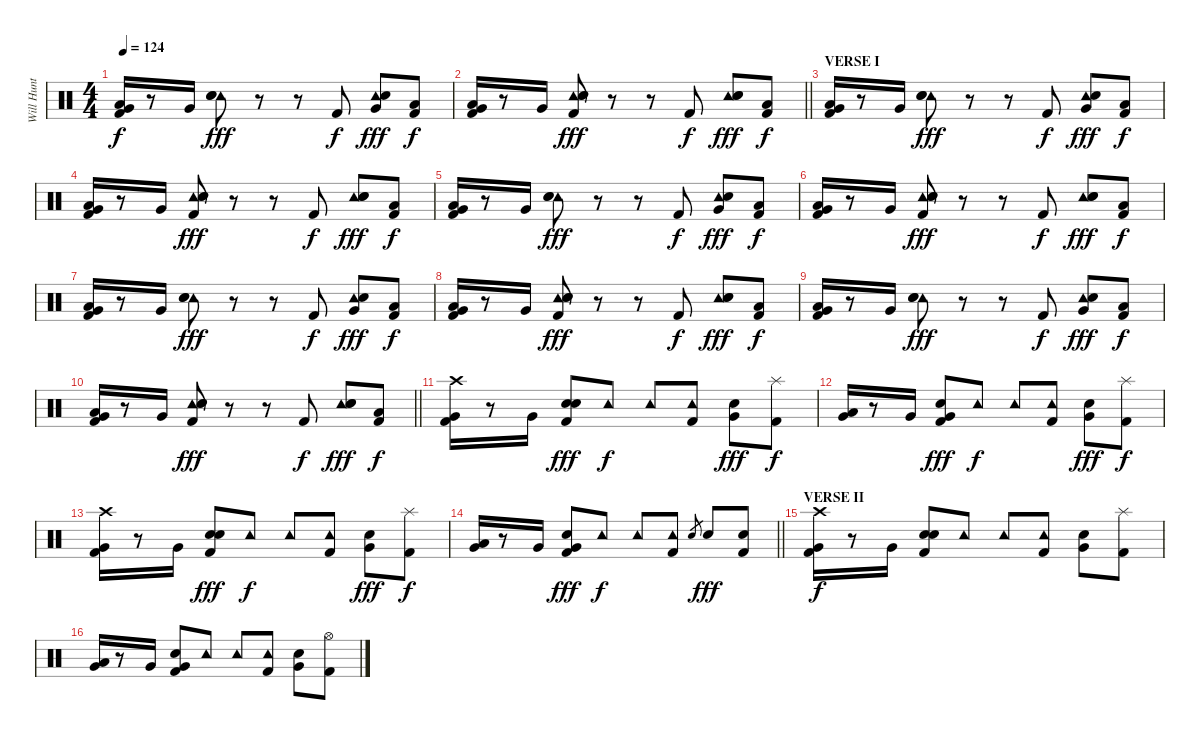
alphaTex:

\track ("Will Hunt - drums" "Will Hunt ") {instrument percussion}
\staff {score}
\articulation defaults
\ts (4 4)
\tempo 124
\clef neutral
\ks c
("Low Floor Tom (hit)" "Very Low Tom (hit)" "Kick (hit) 2").16{dy f} r.8 "Very Low Tom (hit)".16 ("Tambourine (hit)" "Electric Snare (hit)" "Snare (hit) 2").8{dy fff} r.8 r.8 "Kick (hit) 2".8{dy f} ("Tambourine (hit)" "Very Low Tom (hit)" "Snare (hit) 2").8{dy fff} ("Low Floor Tom (hit)" "Kick (hit) 2").8{dy f} |
\barLineRight lightlight
("Low Floor Tom (hit)" "Very Low Tom (hit)" "Kick (hit) 2").16 r.8 "Very Low Tom (hit)".16 ("Tambourine (hit)" "Electric Snare (hit)" "Snare (hit) 2" "Kick (hit) 2").8{dy fff} r.8 r.8 "Kick (hit) 2".8{dy f} ("Tambourine (hit)" "Electric Snare (hit)" "Snare (hit) 2").8{dy fff} ("Low Floor Tom (hit)" "Kick (hit) 2").8{dy f} |
\section ("" "VERSE I")
("Low Floor Tom (hit)" "Very Low Tom (hit)" "Kick (hit) 2").16 r.8 "Very Low Tom (hit)".16 ("Tambourine (hit)" "Electric Snare (hit)" "Snare (hit) 2").8{dy fff} r.8 r.8 "Kick (hit) 2".8{dy f} ("Tambourine (hit)" "Very Low Tom (hit)" "Snare (hit) 2").8{dy fff} ("Low Floor Tom (hit)" "Kick (hit) 2").8{dy f} |
("Low Floor Tom (hit)" "Very Low Tom (hit)" "Kick (hit) 2").16 r.8 "Very Low Tom (hit)".16 ("Tambourine (hit)" "Electric Snare (hit)" "Snare (hit) 2" "Kick (hit) 2").8{dy fff} r.8 r.8 "Kick (hit) 2".8{dy f} ("Tambourine (hit)" "Electric Snare (hit)" "Snare (hit) 2").8{dy fff} ("Low Floor Tom (hit)" "Kick (hit) 2").8{dy f} |
("Low Floor Tom (hit)" "Very Low Tom (hit)" "Kick (hit) 2").16 r.8 "Very Low Tom (hit)".16 ("Tambourine (hit)" "Electric Snare (hit)" "Snare (hit) 2").8{dy fff} r.8 r.8 "Kick (hit) 2".8{dy f} ("Tambourine (hit)" "Very Low Tom (hit)" "Snare (hit) 2").8{dy fff} ("Low Floor Tom (hit)" "Kick (hit) 2").8{dy f} |
("Low Floor Tom (hit)" "Very Low Tom (hit)" "Kick (hit) 2").16 r.8 "Very Low Tom (hit)".16 ("Tambourine (hit)" "Electric Snare (hit)" "Snare (hit) 2" "Kick (hit) 2").8{dy fff} r.8 r.8 "Kick (hit) 2".8{dy f} ("Tambourine (hit)" "Electric Snare (hit)" "Snare (hit) 2").8{dy fff} ("Low Floor Tom (hit)" "Kick (hit) 2").8{dy f} |
("Low Floor Tom (hit)" "Very Low Tom (hit)" "Kick (hit) 2").16 r.8 "Very Low Tom (hit)".16 ("Tambourine (hit)" "Electric Snare (hit)" "Snare (hit) 2").8{dy fff} r.8 r.8 "Kick (hit) 2".8{dy f} ("Tambourine (hit)" "Very Low Tom (hit)" "Snare (hit) 2").8{dy fff} ("Low Floor Tom (hit)" "Kick (hit) 2").8{dy f} |
("Low Floor Tom (hit)" "Very Low Tom (hit)" "Kick (hit) 2").16 r.8 "Very Low Tom (hit)".16 ("Tambourine (hit)" "Electric Snare (hit)" "Snare (hit) 2" "Kick (hit) 2").8{dy fff} r.8 r.8 "Kick (hit) 2".8{dy f} ("Tambourine (hit)" "Electric Snare (hit)" "Snare (hit) 2").8{dy fff} ("Low Floor Tom (hit)" "Kick (hit) 2").8{dy f} |
("Low Floor Tom (hit)" "Very Low Tom (hit)" "Kick (hit) 2").16 r.8 "Very Low Tom (hit)".16 ("Tambourine (hit)" "Electric Snare (hit)" "Snare (hit) 2").8{dy fff} r.8 r.8 "Kick (hit) 2".8{dy f} ("Tambourine (hit)" "Very Low Tom (hit)" "Snare (hit) 2").8{dy fff} ("Low Floor Tom (hit)" "Kick (hit) 2").8{dy f} |
\barLineRight lightlight
("Low Floor Tom (hit)" "Very Low Tom (hit)" "Kick (hit) 2").16 r.8 "Very Low Tom (hit)".16 ("Tambourine (hit)" "Electric Snare (hit)" "Snare (hit) 2" "Kick (hit) 2").8{dy fff} r.8 r.8 "Kick (hit) 2".8{dy f} ("Tambourine (hit)" "Electric Snare (hit)" "Snare (hit) 2").8{dy fff} ("Low Floor Tom (hit)" "Kick (hit) 2").8{dy f} |
\section ("" "")
("Crash high (hit)" "Very Low Tom (hit)" "Kick (hit) 2").16 r.8 "Very Low Tom (hit)".16 ("Electric Snare (hit)" "Snare (hit) 2" "Kick (hit) 2").8{dy fff} "Tambourine (hit)".8{dy f} "Tambourine (hit)".8 ("Tambourine (hit)" "Kick (hit) 2").8 ("Very Low Tom (hit)" "Snare (hit) 2").8{dy fff} ("Splash (hit)" "Kick (hit) 2").8{dy f} |
("Low Floor Tom (hit)" "Very Low Tom (hit)").16 r.8 "Very Low Tom (hit)".16 ("Very Low Tom (hit)" "Snare (hit) 2" "Kick (hit) 2").8{dy fff} "Tambourine (hit)".8{dy f} "Tambourine (hit)".8 ("Tambourine (hit)" "Kick (hit) 2").8 ("Very Low Tom (hit)" "Snare (hit) 2").8{dy fff} ("Splash (hit)" "Kick (hit) 2").8{dy f} |
("Crash high (hit)" "Very Low Tom (hit)" "Kick (hit) 2").16 r.8 "Very Low Tom (hit)".16 ("Electric Snare (hit)" "Snare (hit) 2" "Kick (hit) 2").8{dy fff} "Tambourine (hit)".8{dy f} "Tambourine (hit)".8 ("Tambourine (hit)" "Kick (hit) 2").8 ("Very Low Tom (hit)" "Snare (hit) 2").8{dy fff} ("Splash (hit)" "Kick (hit) 2").8{dy f} |
\barLineRight lightlight
("Low Floor Tom (hit)" "Very Low Tom (hit)").16 r.8 "Very Low Tom (hit)".16 ("Very Low Tom (hit)" "Snare (hit) 2" "Kick (hit) 2").8{dy fff} "Tambourine (hit)".8{dy f} "Tambourine (hit)".8 ("Tambourine (hit)" "Kick (hit) 2").8 "Snare (hit) 2".8{gr} "Snare (hit) 2".8{dy fff} ("Snare (hit) 2" "Kick (hit) 2").8 |
\section ("" "VERSE II")
("Crash high (hit)" "Very Low Tom (hit)" "Kick (hit) 2").16{dy f} r.8 "Very Low Tom (hit)".16 ("Electric Snare (hit)" "Snare (hit) 2" "Kick (hit) 2").8 "Tambourine (hit)".8 "Tambourine (hit)".8 ("Tambourine (hit)" "Kick (hit) 2").8 ("Very Low Tom (hit)" "Snare (hit) 2").8 ("Splash (hit)" "Kick (hit) 2").8 |
("Low Floor Tom (hit)" "Very Low Tom (hit)").16 r.8 "Very Low Tom (hit)".16 ("Very Low Tom (hit)" "Snare (hit) 2" "Kick (hit) 2").8 "Tambourine (hit)".8 "Tambourine (hit)".8 ("Tambourine (hit)" "Kick (hit) 2").8 ("Very Low Tom (hit)" "Snare (hit) 2").8 ("Hi-Hat (open)" "Kick (hit) 2").8
